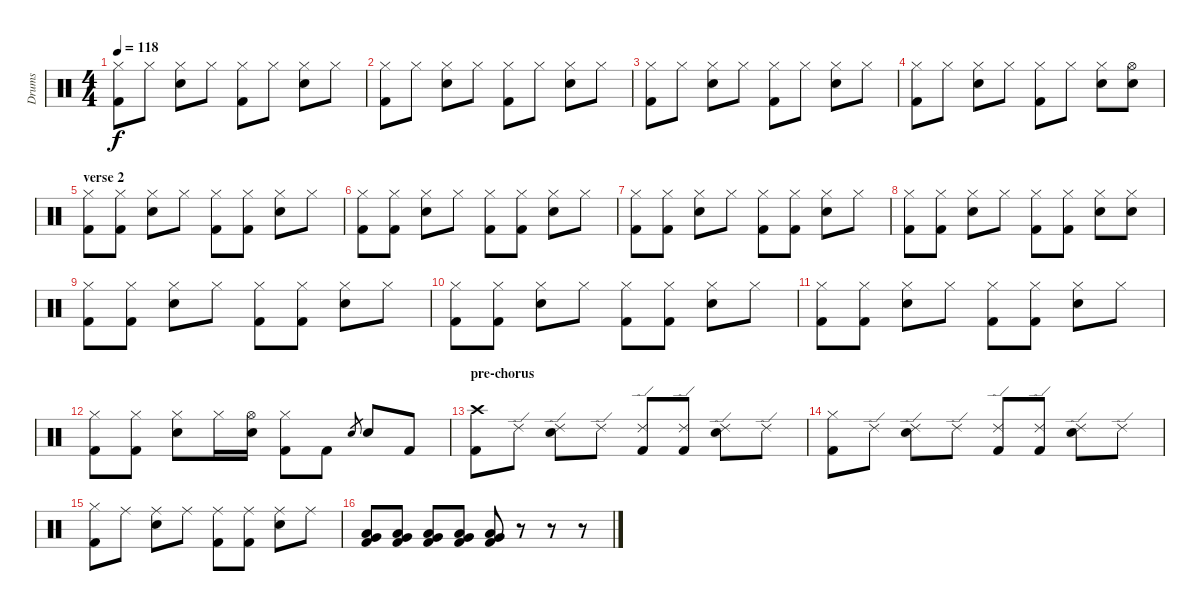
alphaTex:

\track ("Drums" "Drums") {instrument percussion}
\staff {score}
\articulation defaults
\ts (4 4)
\tempo 118
\clef neutral
\ks c
("Hi-Hat (closed)" "Kick (hit) 2").8{dy f} "Hi-Hat (closed)".8 ("Hi-Hat (closed)" "Electric Snare (hit)").8 "Hi-Hat (closed)".8 ("Hi-Hat (closed)" "Kick (hit) 2").8 "Hi-Hat (closed)".8 ("Hi-Hat (closed)" "Electric Snare (hit)").8 "Hi-Hat (closed)".8 |
("Hi-Hat (closed)" "Kick (hit) 2").8 "Hi-Hat (closed)".8 ("Hi-Hat (closed)" "Electric Snare (hit)").8 "Hi-Hat (closed)".8 ("Hi-Hat (closed)" "Kick (hit) 2").8 "Hi-Hat (closed)".8 ("Hi-Hat (closed)" "Electric Snare (hit)").8 "Hi-Hat (closed)".8 |
("Hi-Hat (closed)" "Kick (hit) 2").8 "Hi-Hat (closed)".8 ("Hi-Hat (closed)" "Electric Snare (hit)").8 "Hi-Hat (closed)".8 ("Hi-Hat (closed)" "Kick (hit) 2").8 "Hi-Hat (closed)".8 ("Hi-Hat (closed)" "Electric Snare (hit)").8 "Hi-Hat (closed)".8 |
("Hi-Hat (closed)" "Kick (hit) 2").8 "Hi-Hat (closed)".8 ("Hi-Hat (closed)" "Electric Snare (hit)").8 "Hi-Hat (closed)".8 ("Hi-Hat (closed)" "Kick (hit) 2").8 "Hi-Hat (closed)".8 ("Hi-Hat (closed)" "Electric Snare (hit)").8 ("Hi-Hat (open)" "Electric Snare (hit)").8 |
\section ("" "verse 2 ")
("Hi-Hat (closed)" "Kick (hit) 2").8 ("Hi-Hat (closed)" "Kick (hit) 2").8 ("Hi-Hat (closed)" "Electric Snare (hit)").8 "Hi-Hat (closed)".8 ("Hi-Hat (closed)" "Kick (hit) 2").8 ("Hi-Hat (closed)" "Kick (hit) 2").8 ("Hi-Hat (closed)" "Electric Snare (hit)").8 "Hi-Hat (closed)".8 |
("Hi-Hat (closed)" "Kick (hit) 2").8 ("Hi-Hat (closed)" "Kick (hit) 2").8 ("Hi-Hat (closed)" "Electric Snare (hit)").8 "Hi-Hat (closed)".8 ("Hi-Hat (closed)" "Kick (hit) 2").8 ("Hi-Hat (closed)" "Kick (hit) 2").8 ("Hi-Hat (closed)" "Electric Snare (hit)").8 "Hi-Hat (closed)".8 |
("Hi-Hat (closed)" "Kick (hit) 2").8 ("Hi-Hat (closed)" "Kick (hit) 2").8 ("Hi-Hat (closed)" "Electric Snare (hit)").8 "Hi-Hat (closed)".8 ("Hi-Hat (closed)" "Kick (hit) 2").8 ("Hi-Hat (closed)" "Kick (hit) 2").8 ("Hi-Hat (closed)" "Electric Snare (hit)").8 "Hi-Hat (closed)".8 |
("Hi-Hat (closed)" "Kick (hit) 2").8 ("Hi-Hat (closed)" "Kick (hit) 2").8 ("Hi-Hat (closed)" "Electric Snare (hit)").8 "Hi-Hat (closed)".8 ("Hi-Hat (closed)" "Kick (hit) 2").8 ("Hi-Hat (closed)" "Kick (hit) 2").8 ("Hi-Hat (closed)" "Electric Snare (hit)").8 ("Hi-Hat (closed)" "Electric Snare (hit)").8 |
("Hi-Hat (closed)" "Kick (hit) 2").8 ("Hi-Hat (closed)" "Kick (hit) 2").8 ("Hi-Hat (closed)" "Electric Snare (hit)").8 "Hi-Hat (closed)".8 ("Hi-Hat (closed)" "Kick (hit) 2").8 ("Hi-Hat (closed)" "Kick (hit) 2").8 ("Hi-Hat (closed)" "Electric Snare (hit)").8 "Hi-Hat (closed)".8 |
("Hi-Hat (closed)" "Kick (hit) 2").8 ("Hi-Hat (closed)" "Kick (hit) 2").8 ("Hi-Hat (closed)" "Electric Snare (hit)").8 "Hi-Hat (closed)".8 ("Hi-Hat (closed)" "Kick (hit) 2").8 ("Hi-Hat (closed)" "Kick (hit) 2").8 ("Hi-Hat (closed)" "Electric Snare (hit)").8 "Hi-Hat (closed)".8 |
("Hi-Hat (closed)" "Kick (hit) 2").8 ("Hi-Hat (closed)" "Kick (hit) 2").8 ("Hi-Hat (closed)" "Electric Snare (hit)").8 "Hi-Hat (closed)".8 ("Hi-Hat (closed)" "Kick (hit) 2").8 ("Hi-Hat (closed)" "Kick (hit) 2").8 ("Hi-Hat (closed)" "Electric Snare (hit)").8 "Hi-Hat (closed)".8 |
("Hi-Hat (closed)" "Kick (hit) 2").8 ("Hi-Hat (closed)" "Kick (hit) 2").8 ("Hi-Hat (closed)" "Electric Snare (hit)").8 "Hi-Hat (closed)".16 ("Hi-Hat (open)" "Electric Snare (hit)").16 ("Hi-Hat (closed)" "Kick (hit) 2").8 "Kick (hit) 2".8 "Electric Snare (hit)".8{gr} "Electric Snare (hit)".8 "Kick (hit) 2".8 |
\section ("" "pre-chorus")
("Crash high (hit)" "Kick (hit) 2").8 "Ride (edge) 2".8 ("Ride (edge) 2" "Electric Snare (hit)").8 "Ride (edge) 2".8 ("Ride (edge) 2" "Kick (hit) 2").8 ("Ride (edge) 2" "Kick (hit) 2").8 ("Ride (edge) 2" "Electric Snare (hit)").8 "Ride (edge) 2".8 |
("Hi-Hat (closed)" "Kick (hit) 2").8 "Ride (edge) 2".8 ("Ride (edge) 2" "Electric Snare (hit)").8 "Ride (edge) 2".8 ("Ride (edge) 2" "Kick (hit) 2").8 ("Ride (edge) 2" "Kick (hit) 2").8 ("Ride (edge) 2" "Electric Snare (hit)").8 "Ride (edge) 2".8 |
("Hi-Hat (closed)" "Kick (hit) 2").8 "Ride (middle)".8 ("Ride (middle)" "Electric Snare (hit)").8 "Ride (middle)".8 ("Ride (middle)" "Kick (hit) 2").8 ("Ride (middle)" "Kick (hit) 2").8 ("Ride (middle)" "Electric Snare (hit)").8 "Ride (middle)".8 |
("Low Tom (hit)" "Very Low Tom (hit)" "Kick (hit) 2").8 ("Low Tom (hit)" "Very Low Tom (hit)" "Kick (hit) 2").8 ("Low Tom (hit)" "Very Low Tom (hit)" "Kick (hit) 2").8 ("Low Tom (hit)" "Very Low Tom (hit)" "Kick (hit) 2").8 ("Low Tom (hit)" "Very Low Tom (hit)" "Kick (hit) 2").8 r.8 r.8 r.8
